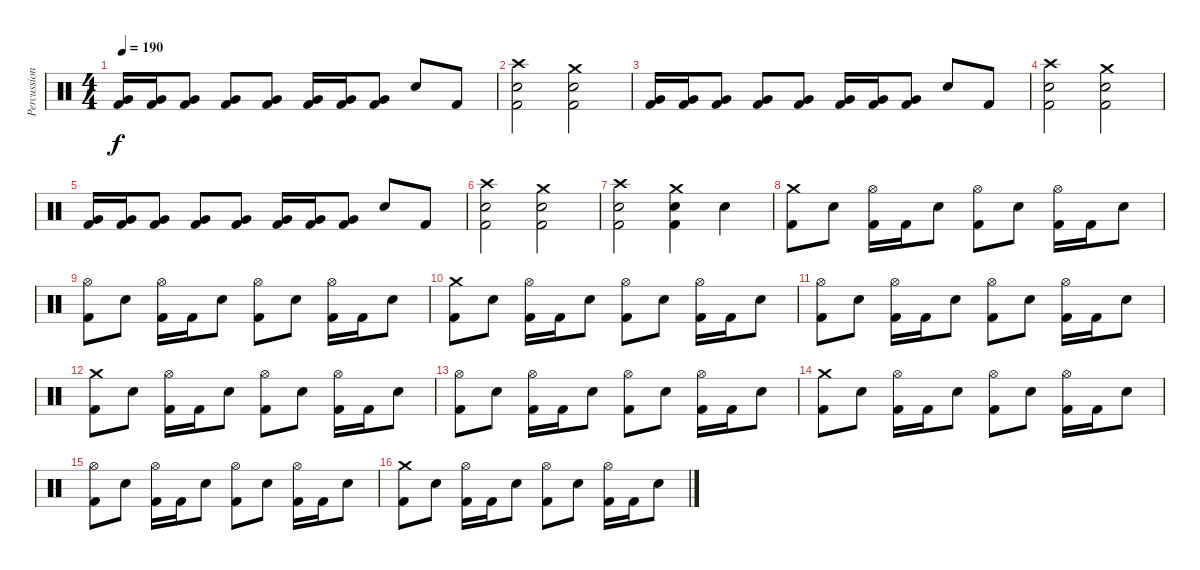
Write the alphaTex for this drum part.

\track ("Percussion" "Percussion") {instrument percussion}
\staff {score}
\articulation defaults
\ts (4 4)
\tempo 190
\clef neutral
\ks c
("Kick (hit) 2" "Very Low Tom (hit)").16{dy f} ("Kick (hit) 2" "Very Low Tom (hit)").16 ("Kick (hit) 2" "Very Low Tom (hit)").8 ("Kick (hit) 2" "Very Low Tom (hit)").8 ("Kick (hit) 2" "Very Low Tom (hit)").8 ("Kick (hit) 2" "Very Low Tom (hit)").16 ("Kick (hit) 2" "Very Low Tom (hit)").16 ("Kick (hit) 2" "Very Low Tom (hit)").8 "Snare (hit) 2".8 "Kick (hit) 2".8 |
("Crash high (hit)" "Snare (hit) 2" "Kick (hit) 2").2 ("Crash medium (hit)" "Snare (hit) 2" "Kick (hit) 2").2 |
("Kick (hit) 2" "Very Low Tom (hit)").16 ("Kick (hit) 2" "Very Low Tom (hit)").16 ("Kick (hit) 2" "Very Low Tom (hit)").8 ("Kick (hit) 2" "Very Low Tom (hit)").8 ("Kick (hit) 2" "Very Low Tom (hit)").8 ("Kick (hit) 2" "Very Low Tom (hit)").16 ("Kick (hit) 2" "Very Low Tom (hit)").16 ("Kick (hit) 2" "Very Low Tom (hit)").8 "Snare (hit) 2".8 "Kick (hit) 2".8 |
("Crash high (hit)" "Snare (hit) 2" "Kick (hit) 2").2 ("Crash medium (hit)" "Snare (hit) 2" "Kick (hit) 2").2 |
("Kick (hit) 2" "Very Low Tom (hit)").16 ("Kick (hit) 2" "Very Low Tom (hit)").16 ("Kick (hit) 2" "Very Low Tom (hit)").8 ("Kick (hit) 2" "Very Low Tom (hit)").8 ("Kick (hit) 2" "Very Low Tom (hit)").8 ("Kick (hit) 2" "Very Low Tom (hit)").16 ("Kick (hit) 2" "Very Low Tom (hit)").16 ("Kick (hit) 2" "Very Low Tom (hit)").8 "Snare (hit) 2".8 "Kick (hit) 2".8 |
("Crash high (hit)" "Snare (hit) 2" "Kick (hit) 2").2 ("Crash medium (hit)" "Snare (hit) 2" "Kick (hit) 2").2 |
("Crash high (hit)" "Snare (hit) 2" "Kick (hit) 2").2 ("Crash medium (hit)" "Snare (hit) 2" "Kick (hit) 2").4 "Snare (hit) 2".4 |
("Crash medium (hit)" "Kick (hit) 2").8 "Snare (hit) 2".8 ("Hi-Hat (open)" "Kick (hit) 2").16 "Kick (hit) 2".16 "Snare (hit) 2".8 ("Hi-Hat (open)" "Kick (hit) 2").8 "Snare (hit) 2".8 ("Hi-Hat (open)" "Kick (hit) 2").16 "Kick (hit) 2".16 "Snare (hit) 2".8 |
("Hi-Hat (open)" "Kick (hit) 2").8 "Snare (hit) 2".8 ("Hi-Hat (open)" "Kick (hit) 2").16 "Kick (hit) 2".16 "Snare (hit) 2".8 ("Hi-Hat (open)" "Kick (hit) 2").8 "Snare (hit) 2".8 ("Hi-Hat (open)" "Kick (hit) 2").16 "Kick (hit) 2".16 "Snare (hit) 2".8 |
("Crash medium (hit)" "Kick (hit) 2").8 "Snare (hit) 2".8 ("Hi-Hat (open)" "Kick (hit) 2").16 "Kick (hit) 2".16 "Snare (hit) 2".8 ("Hi-Hat (open)" "Kick (hit) 2").8 "Snare (hit) 2".8 ("Hi-Hat (open)" "Kick (hit) 2").16 "Kick (hit) 2".16 "Snare (hit) 2".8 |
("Hi-Hat (open)" "Kick (hit) 2").8 "Snare (hit) 2".8 ("Hi-Hat (open)" "Kick (hit) 2").16 "Kick (hit) 2".16 "Snare (hit) 2".8 ("Hi-Hat (open)" "Kick (hit) 2").8 "Snare (hit) 2".8 ("Hi-Hat (open)" "Kick (hit) 2").16 "Kick (hit) 2".16 "Snare (hit) 2".8 |
("Crash medium (hit)" "Kick (hit) 2").8 "Snare (hit) 2".8 ("Hi-Hat (open)" "Kick (hit) 2").16 "Kick (hit) 2".16 "Snare (hit) 2".8 ("Hi-Hat (open)" "Kick (hit) 2").8 "Snare (hit) 2".8 ("Hi-Hat (open)" "Kick (hit) 2").16 "Kick (hit) 2".16 "Snare (hit) 2".8 |
("Hi-Hat (open)" "Kick (hit) 2").8 "Snare (hit) 2".8 ("Hi-Hat (open)" "Kick (hit) 2").16 "Kick (hit) 2".16 "Snare (hit) 2".8 ("Hi-Hat (open)" "Kick (hit) 2").8 "Snare (hit) 2".8 ("Hi-Hat (open)" "Kick (hit) 2").16 "Kick (hit) 2".16 "Snare (hit) 2".8 |
("Crash medium (hit)" "Kick (hit) 2").8 "Snare (hit) 2".8 ("Hi-Hat (open)" "Kick (hit) 2").16 "Kick (hit) 2".16 "Snare (hit) 2".8 ("Hi-Hat (open)" "Kick (hit) 2").8 "Snare (hit) 2".8 ("Hi-Hat (open)" "Kick (hit) 2").16 "Kick (hit) 2".16 "Snare (hit) 2".8 |
("Hi-Hat (open)" "Kick (hit) 2").8 "Snare (hit) 2".8 ("Hi-Hat (open)" "Kick (hit) 2").16 "Kick (hit) 2".16 "Snare (hit) 2".8 ("Hi-Hat (open)" "Kick (hit) 2").8 "Snare (hit) 2".8 ("Hi-Hat (open)" "Kick (hit) 2").16 "Kick (hit) 2".16 "Snare (hit) 2".8 |
("Crash medium (hit)" "Kick (hit) 2").8 "Snare (hit) 2".8 ("Hi-Hat (open)" "Kick (hit) 2").16 "Kick (hit) 2".16 "Snare (hit) 2".8 ("Hi-Hat (open)" "Kick (hit) 2").8 "Snare (hit) 2".8 ("Hi-Hat (open)" "Kick (hit) 2").16 "Kick (hit) 2".16 "Snare (hit) 2".8
